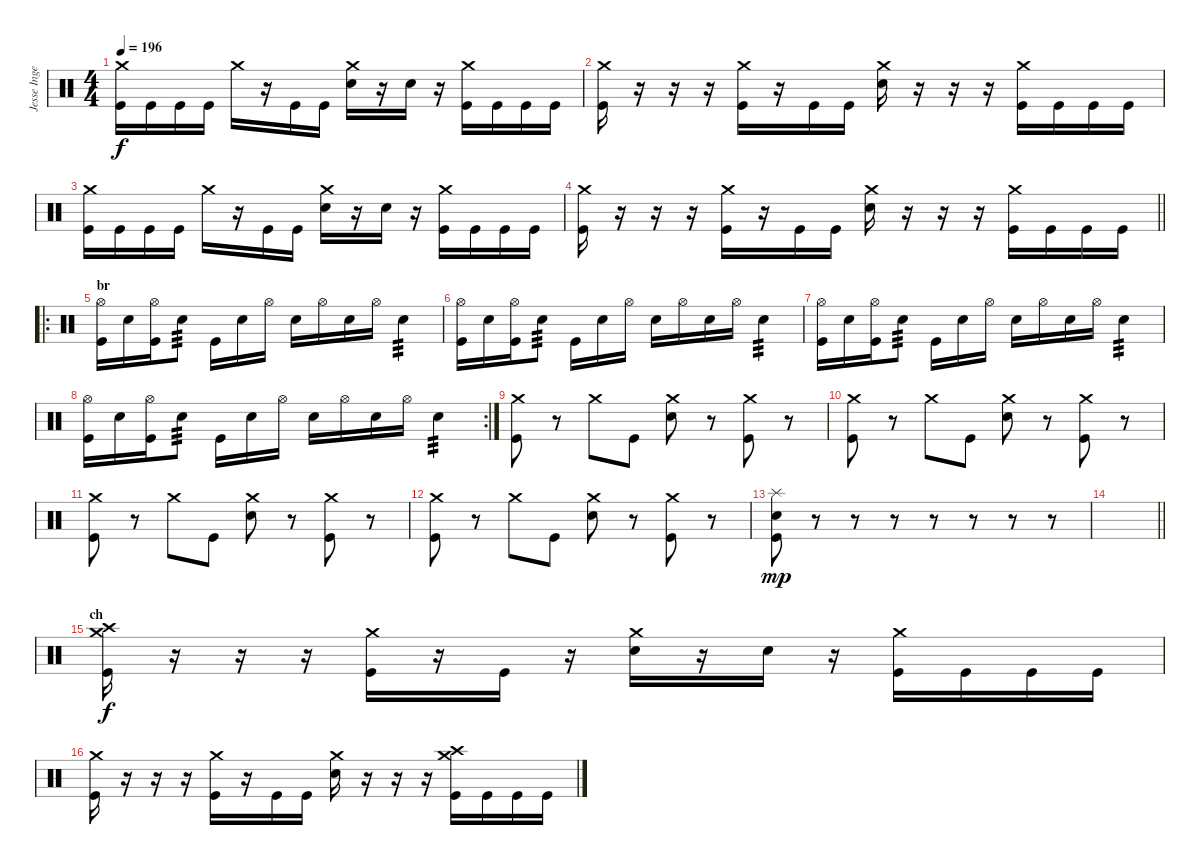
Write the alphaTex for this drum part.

\track ("Jesse Ingelevics" "Jesse Inge") {instrument percussion}
\staff {score}
\articulation defaults
\ts (4 4)
\tempo 196
\clef neutral
\ks c
("Crash medium (hit)" "Kick (hit)").16{dy f} "Kick (hit)".16 "Kick (hit)".16 "Kick (hit)".16 "Crash medium (hit)".16 r.16 "Kick (hit)".16 "Kick (hit)".16 ("Crash medium (hit)" "Electric Snare (hit)").16 r.16 "Electric Snare (hit)".16 r.16 ("Crash medium (hit)" "Kick (hit)").16 "Kick (hit)".16 "Kick (hit)".16 "Kick (hit)".16 |
("Crash medium (hit)" "Kick (hit)").16 r.16 r.16 r.16 ("Crash medium (hit)" "Kick (hit)").16 r.16 "Kick (hit)".16 "Kick (hit)".16 ("Crash medium (hit)" "Electric Snare (hit)").16 r.16 r.16 r.16 ("Crash medium (hit)" "Kick (hit)").16 "Kick (hit)".16 "Kick (hit)".16 "Kick (hit)".16 |
("Crash medium (hit)" "Kick (hit)").16 "Kick (hit)".16 "Kick (hit)".16 "Kick (hit)".16 "Crash medium (hit)".16 r.16 "Kick (hit)".16 "Kick (hit)".16 ("Crash medium (hit)" "Electric Snare (hit)").16 r.16 "Electric Snare (hit)".16 r.16 ("Crash medium (hit)" "Kick (hit)").16 "Kick (hit)".16 "Kick (hit)".16 "Kick (hit)".16 |
\barLineRight lightlight
("Crash medium (hit)" "Kick (hit)").16 r.16 r.16 r.16 ("Crash medium (hit)" "Kick (hit)").16 r.16 "Kick (hit)".16 "Kick (hit)".16 ("Crash medium (hit)" "Electric Snare (hit)").16 r.16 r.16 r.16 ("Crash medium (hit)" "Kick (hit)").16 "Kick (hit)".16 "Kick (hit)".16 "Kick (hit)".16 |
\ro
\section ("" "br")
("Hi-Hat (open)" "Kick (hit)").16 "Snare (hit) 2".16 ("Hi-Hat (open)" "Kick (hit)").16 "Electric Snare (hit)".8{tp 3} "Kick (hit)".16 "Snare (hit) 2".16 "Hi-Hat (open)".16 "Snare (hit) 2".16 "Hi-Hat (open)".16 "Snare (hit) 2".16 "Hi-Hat (open)".16 "Electric Snare (hit)".4{tp 3} |
("Hi-Hat (open)" "Kick (hit)").16 "Snare (hit) 2".16 ("Hi-Hat (open)" "Kick (hit)").16 "Electric Snare (hit)".8{tp 3} "Kick (hit)".16 "Snare (hit) 2".16 "Hi-Hat (open)".16 "Snare (hit) 2".16 "Hi-Hat (open)".16 "Snare (hit) 2".16 "Hi-Hat (open)".16 "Electric Snare (hit)".4{tp 3} |
("Hi-Hat (open)" "Kick (hit)").16 "Snare (hit) 2".16 ("Hi-Hat (open)" "Kick (hit)").16 "Electric Snare (hit)".8{tp 3} "Kick (hit)".16 "Snare (hit) 2".16 "Hi-Hat (open)".16 "Snare (hit) 2".16 "Hi-Hat (open)".16 "Snare (hit) 2".16 "Hi-Hat (open)".16 "Electric Snare (hit)".4{tp 3} |
\rc 2
("Hi-Hat (open)" "Kick (hit)").16 "Snare (hit) 2".16 ("Hi-Hat (open)" "Kick (hit)").16 "Electric Snare (hit)".8{tp 3} "Kick (hit)".16 "Snare (hit) 2".16 "Hi-Hat (open)".16 "Snare (hit) 2".16 "Hi-Hat (open)".16 "Snare (hit) 2".16 "Hi-Hat (open)".16 "Electric Snare (hit)".4{tp 3} |
("Crash medium (hit)" "Kick (hit)").8 r.8 "Crash medium (hit)".8 "Kick (hit)".8 ("Crash medium (hit)" "Electric Snare (hit)").8 r.8 ("Crash medium (hit)" "Kick (hit)").8 r.8 |
("Crash medium (hit)" "Kick (hit)").8 r.8 "Crash medium (hit)".8 "Kick (hit)".8 ("Crash medium (hit)" "Electric Snare (hit)").8 r.8 ("Crash medium (hit)" "Kick (hit)").8 r.8 |
("Crash medium (hit)" "Kick (hit)").8 r.8 "Crash medium (hit)".8 "Kick (hit)".8 ("Crash medium (hit)" "Electric Snare (hit)").8 r.8 ("Crash medium (hit)" "Kick (hit)").8 r.8 |
("Crash medium (hit)" "Kick (hit)").8 r.8 "Crash medium (hit)".8 "Kick (hit)".8 ("Crash medium (hit)" "Electric Snare (hit)").8 r.8 ("Crash medium (hit)" "Kick (hit)").8 r.8 |
("Splash (hit)" "Snare (hit) 2" "Kick (hit)").8{dy mp} r.8 r.8 r.8 r.8 r.8 r.8 r.8 |
\barLineRight lightlight
|
\section ("" "ch")
("Crash high (hit)" "Crash medium (hit)" "Kick (hit)").16{dy f} r.16 r.16 r.16 ("Crash medium (hit)" "Kick (hit)").16 r.16 "Kick (hit)".16 r.16 ("Crash medium (hit)" "Electric Snare (hit)").16 r.16 "Electric Snare (hit)".16 r.16 ("Crash medium (hit)" "Kick (hit)").16 "Kick (hit)".16 "Kick (hit)".16 "Kick (hit)".16 |
("Crash medium (hit)" "Kick (hit)").16 r.16 r.16 r.16 ("Crash medium (hit)" "Kick (hit)").16 r.16 "Kick (hit)".16 "Kick (hit)".16 ("Crash medium (hit)" "Electric Snare (hit)").16 r.16 r.16 r.16 ("Crash medium (hit)" "Crash high (hit)" "Kick (hit)").16 "Kick (hit)".16 "Kick (hit)".16 "Kick (hit)".16
